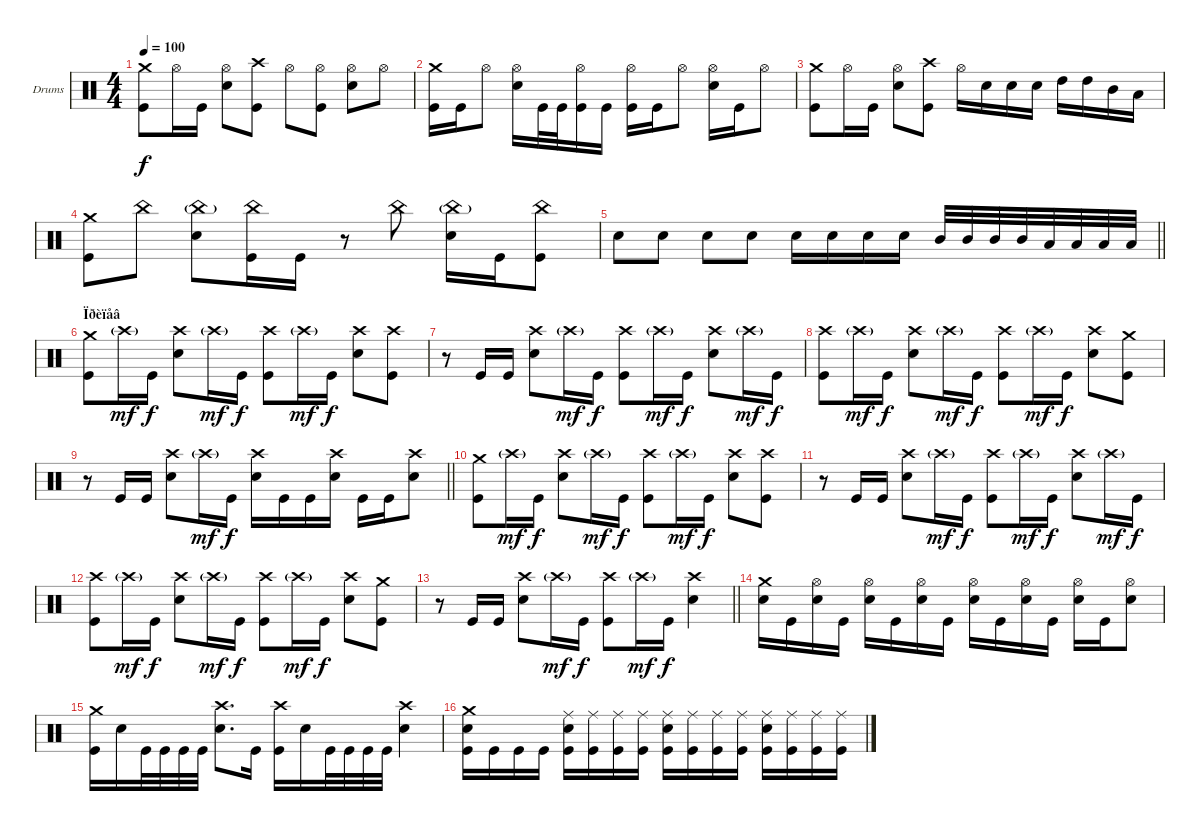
\bracketExtendMode groupsimilarinstruments
\firstSystemTrackNameOrientation horizontal
\otherSystemsTrackNameOrientation horizontal
\track ("Drumkit" "Drums") {instrument percussion}
\staff {score}
\articulation defaults
\ts (4 4)
\tempo 100
\clef neutral
\ks c
("Crash medium (hit)" "Kick (hit)").8{dy f} "Hi-Hat (open)".16 "Kick (hit)".16 ("Hi-Hat (open)" "Snare (hit) 2").8 ("Crash high (hit)" "Kick (hit)").8 "Hi-Hat (open)".8 ("Hi-Hat (open)" "Kick (hit)").8 ("Hi-Hat (open)" "Snare (hit) 2").8 "Hi-Hat (open)".8 |
("Crash medium (hit)" "Kick (hit)").16 "Kick (hit)".16 "Hi-Hat (open)".8 ("Hi-Hat (open)" "Snare (hit) 2").16 "Kick (hit)".32 "Kick (hit)".32 ("Hi-Hat (open)" "Kick (hit)").16 "Kick (hit)".16 ("Hi-Hat (open)" "Kick (hit)").16 "Kick (hit)".16 "Hi-Hat (open)".8 ("Hi-Hat (open)" "Snare (hit) 2").16 "Kick (hit)".16 "Hi-Hat (open)".8 |
("Crash medium (hit)" "Kick (hit)").8 "Hi-Hat (open)".16 "Kick (hit)".16 ("Hi-Hat (open)" "Snare (hit) 2").8 ("Crash high (hit)" "Kick (hit)").8 "Hi-Hat (open)".16 "Snare (hit) 2".16 "Snare (hit) 2".16 "Snare (hit) 2".16 "High Tom (hit)".16 "High Tom (hit)".16 "Mid Tom (hit)".16 "Low Tom (hit)".16 |
("Crash medium (hit)" "Kick (hit)").8 "China (hit)".8 ("China (hit)"{g} "Snare (hit) 2").8 ("China (hit)" "Kick (hit)").16 "Kick (hit)".16 r.8 "China (hit)".8 ("China (hit)"{g} "Snare (hit) 2").16 "Kick (hit)".16 ("China (hit)" "Kick (hit)").8 |
\barLineRight lightlight "Snare (hit) 2".8 "Snare (hit) 2".8 "Snare (hit) 2".8 "Snare (hit) 2".8 "Snare (hit) 2".16 "Snare (hit) 2".16 "Snare (hit) 2".16 "Snare (hit) 2".16 "Mid Tom (hit)".32 "Mid Tom (hit)".32 "Mid Tom (hit)".32 "Mid Tom (hit)".32 "Low Tom (hit)".32 "Low Tom (hit)".32 "Low Tom (hit)".32 "Low Tom (hit)".32
|
\section ("" "Ïðèïåâ")
("Crash medium (hit)" "Kick (hit)").8 "Crash high (hit)"{g}.16{dy mf} "Kick (hit)".16{dy f} ("Crash high (hit)" "Snare (hit) 2").8 "Crash high (hit)"{g}.16{dy mf} "Kick (hit)".16{dy f} ("Crash high (hit)" "Kick (hit)").8 "Crash high (hit)"{g}.16{dy mf} "Kick (hit)".16{dy f} ("Crash high (hit)" "Snare (hit) 2").8 ("Crash high (hit)" "Kick (hit)").8 |
r.8 "Kick (hit)".16 "Kick (hit)".16 ("Crash high (hit)" "Snare (hit) 2").8 "Crash high (hit)"{g}.16{dy mf} "Kick (hit)".16{dy f} ("Crash high (hit)" "Kick (hit)").8 "Crash high (hit)"{g}.16{dy mf} "Kick (hit)".16{dy f} ("Crash high (hit)" "Snare (hit) 2").8 "Crash high (hit)"{g}.16{dy mf} "Kick (hit)".16{dy f} |
("Crash high (hit)" "Kick (hit)").8 "Crash high (hit)"{g}.16{dy mf} "Kick (hit)".16{dy f} ("Crash high (hit)" "Snare (hit) 2").8 "Crash high (hit)"{g}.16{dy mf} "Kick (hit)".16{dy f} ("Crash high (hit)" "Kick (hit)").8 "Crash high (hit)"{g}.16{dy mf} "Kick (hit)".16{dy f} ("Crash high (hit)" "Snare (hit) 2").8 ("Crash medium (hit)" "Kick (hit)").8 |
\barLineRight lightlight
r.8 "Kick (hit)".16 "Kick (hit)".16 ("Crash high (hit)" "Snare (hit) 2").8 "Crash high (hit)"{g}.16{dy mf} "Kick (hit)".16{dy f} ("Crash high (hit)" "Snare (hit) 2").16 "Kick (hit)".16 "Kick (hit)".16 ("Crash high (hit)" "Snare (hit) 2").16 "Kick (hit)".16 "Kick (hit)".16 ("Crash high (hit)" "Snare (hit) 2").8 |
("Crash medium (hit)" "Kick (hit)").8 "Crash high (hit)"{g}.16{dy mf} "Kick (hit)".16{dy f} ("Crash high (hit)" "Snare (hit) 2").8 "Crash high (hit)"{g}.16{dy mf} "Kick (hit)".16{dy f} ("Crash high (hit)" "Kick (hit)").8 "Crash high (hit)"{g}.16{dy mf} "Kick (hit)".16{dy f} ("Crash high (hit)" "Snare (hit) 2").8 ("Crash high (hit)" "Kick (hit)").8 |
r.8 "Kick (hit)".16 "Kick (hit)".16 ("Crash high (hit)" "Snare (hit) 2").8 "Crash high (hit)"{g}.16{dy mf} "Kick (hit)".16{dy f} ("Crash high (hit)" "Kick (hit)").8 "Crash high (hit)"{g}.16{dy mf} "Kick (hit)".16{dy f} ("Crash high (hit)" "Snare (hit) 2").8 "Crash high (hit)"{g}.16{dy mf} "Kick (hit)".16{dy f} |
("Crash high (hit)" "Kick (hit)").8 "Crash high (hit)"{g}.16{dy mf} "Kick (hit)".16{dy f} ("Crash high (hit)" "Snare (hit) 2").8 "Crash high (hit)"{g}.16{dy mf} "Kick (hit)".16{dy f} ("Crash high (hit)" "Kick (hit)").8 "Crash high (hit)"{g}.16{dy mf} "Kick (hit)".16{dy f} ("Crash high (hit)" "Snare (hit) 2").8 ("Crash medium (hit)" "Kick (hit)").8 |
\barLineRight lightlight
r.8 "Kick (hit)".16 "Kick (hit)".16 ("Crash high (hit)" "Snare (hit) 2").8 "Crash high (hit)"{g}.16{dy mf} "Kick (hit)".16{dy f} ("Crash high (hit)" "Kick (hit)").8 "Crash high (hit)"{g}.16{dy mf} "Kick (hit)".16{dy f} ("Crash high (hit)" "Snare (hit) 2").4 |
("Crash medium (hit)" "Snare (hit) 2").16 "Kick (hit)".16 ("Hi-Hat (open)" "Snare (hit) 2").16 "Kick (hit)".16 ("Hi-Hat (open)" "Snare (hit) 2").16 "Kick (hit)".16 ("Hi-Hat (open)" "Snare (hit) 2").16 "Kick (hit)".16 ("Hi-Hat (open)" "Snare (hit) 2").16 "Kick (hit)".16 ("Hi-Hat (open)" "Snare (hit) 2").16 "Kick (hit)".16 ("Hi-Hat (open)" "Snare (hit) 2").16 "Kick (hit)".16 ("Hi-Hat (open)" "Snare (hit) 2").8 |
("Crash medium (hit)" "Kick (hit)").16 "Snare (hit) 2".16 "Kick (hit)".32 "Kick (hit)".32 "Kick (hit)".32 "Kick (hit)".32 ("Crash high (hit)" "Snare (hit) 2").8{d} "Kick (hit)".16 ("Crash high (hit)" "Kick (hit)").16 "Snare (hit) 2".16 "Kick (hit)".32 "Kick (hit)".32 "Kick (hit)".32 "Kick (hit)".32 ("Crash high (hit)" "Snare (hit) 2").4 |
("Crash medium (hit)" "Snare (hit) 2" "Kick (hit)").16 "Kick (hit)".16 "Kick (hit)".16 "Kick (hit)".16 ("Ride (middle)" "Snare (hit) 2" "Kick (hit)").16 ("Ride (middle)" "Kick (hit)").16 ("Ride (middle)" "Kick (hit)").16 ("Ride (middle)" "Kick (hit)").16 ("Ride (middle)" "Snare (hit) 2" "Kick (hit)").16 ("Ride (middle)" "Kick (hit)").16 ("Ride (middle)" "Kick (hit)").16 ("Ride (middle)" "Kick (hit)").16 ("Ride (middle)" "Snare (hit) 2" "Kick (hit)").16 ("Ride (middle)" "Kick (hit)").16 ("Ride (middle)" "Kick (hit)").16 ("Ride (middle)" "Kick (hit)").16
